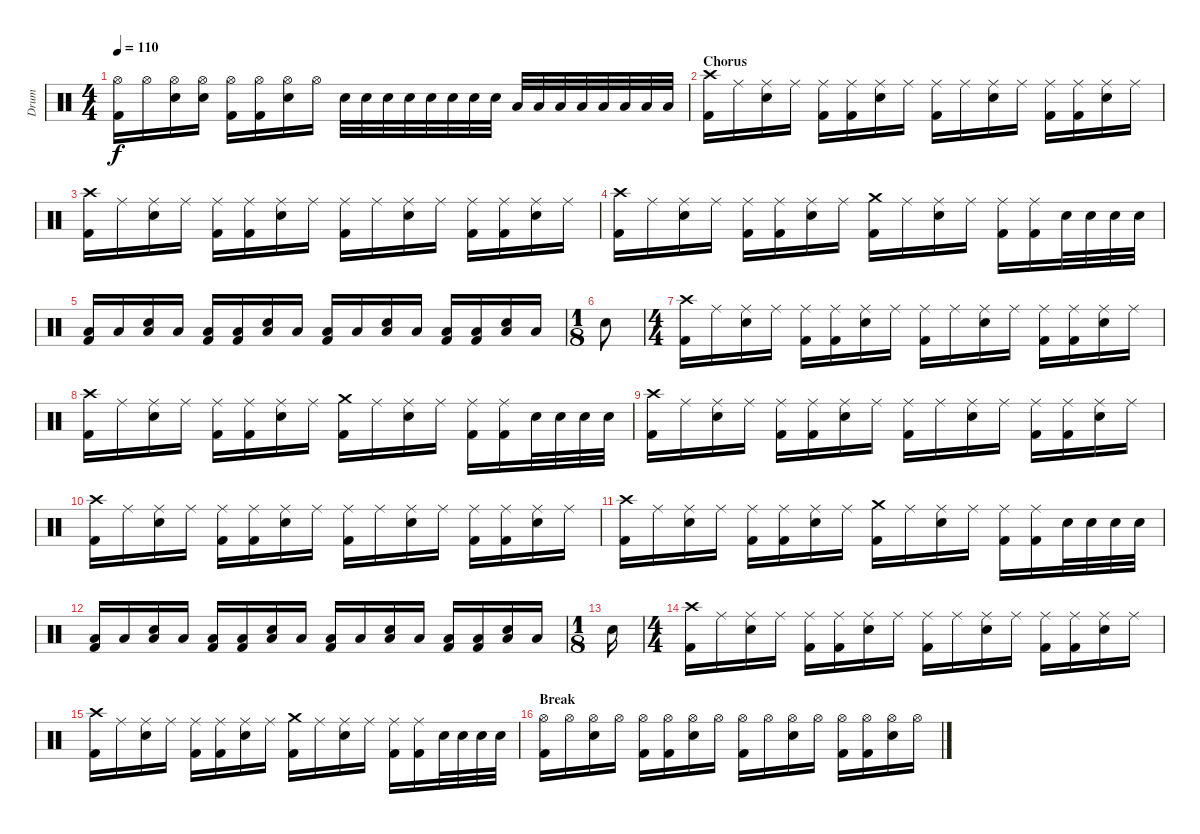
\track ("Drum" "Drum") {instrument percussion}
\staff {score}
\articulation defaults
\ts (4 4)
\tempo 110
\clef neutral
\ks c
("Hi-Hat (open)" "Kick (hit) 2").16{dy f} "Hi-Hat (open)".16 ("Hi-Hat (open)" "Electric Snare (hit)").16 ("Hi-Hat (open)" "Electric Snare (hit)").16 ("Hi-Hat (open)" "Kick (hit) 2").16 ("Hi-Hat (open)" "Kick (hit) 2").16 ("Hi-Hat (open)" "Electric Snare (hit)").16 "Hi-Hat (open)".16 "Electric Snare (hit)".32 "Electric Snare (hit)".32 "Electric Snare (hit)".32 "Electric Snare (hit)".32 "Electric Snare (hit)".32 "Electric Snare (hit)".32 "Electric Snare (hit)".32 "Electric Snare (hit)".32 "Low Tom (hit)".32 "Low Tom (hit)".32 "Low Tom (hit)".32 "Low Tom (hit)".32 "Low Floor Tom (hit)".32 "Low Floor Tom (hit)".32 "Low Floor Tom (hit)".32 "Low Floor Tom (hit)".32 |
\section ("" "Chorus")
("Crash high (hit)" "Kick (hit) 2").16 "Ride (middle)".16 ("Ride (middle)" "Electric Snare (hit)").16 "Ride (middle)".16 ("Ride (middle)" "Kick (hit) 2").16 ("Ride (middle)" "Kick (hit) 2").16 ("Ride (middle)" "Electric Snare (hit)").16 "Ride (middle)".16 ("Ride (middle)" "Kick (hit) 2").16 "Ride (middle)".16 ("Ride (middle)" "Electric Snare (hit)").16 "Ride (middle)".16 ("Ride (middle)" "Kick (hit) 2").16 ("Ride (middle)" "Kick (hit) 2").16 ("Ride (middle)" "Electric Snare (hit)").16 "Ride (middle)".16 |
("Crash high (hit)" "Kick (hit) 2").16 "Ride (middle)".16 ("Ride (middle)" "Electric Snare (hit)").16 "Ride (middle)".16 ("Ride (middle)" "Kick (hit) 2").16 ("Ride (middle)" "Kick (hit) 2").16 ("Ride (middle)" "Electric Snare (hit)").16 "Ride (middle)".16 ("Ride (middle)" "Kick (hit) 2").16 "Ride (middle)".16 ("Ride (middle)" "Electric Snare (hit)").16 "Ride (middle)".16 ("Ride (middle)" "Kick (hit) 2").16 ("Ride (middle)" "Kick (hit) 2").16 ("Ride (middle)" "Electric Snare (hit)").16 "Ride (middle)".16 |
("Crash high (hit)" "Kick (hit) 2").16 "Ride (middle)".16 ("Ride (middle)" "Electric Snare (hit)").16 "Ride (middle)".16 ("Ride (middle)" "Kick (hit) 2").16 ("Ride (middle)" "Kick (hit) 2").16 ("Ride (middle)" "Electric Snare (hit)").16 "Ride (middle)".16 ("Crash medium (hit)" "Kick (hit) 2").16 "Ride (middle)".16 ("Ride (middle)" "Electric Snare (hit)").16 "Ride (middle)".16 ("Ride (middle)" "Kick (hit) 2").16 ("Ride (middle)" "Kick (hit) 2").16 "Electric Snare (hit)".32 "Electric Snare (hit)".32 "Electric Snare (hit)".32 "Electric Snare (hit)".32 |
("Low Floor Tom (hit)" "Kick (hit) 2").16 "Low Floor Tom (hit)".16 ("Low Floor Tom (hit)" "Electric Snare (hit)").16 "Low Floor Tom (hit)".16 ("Low Floor Tom (hit)" "Kick (hit) 2").16 ("Low Floor Tom (hit)" "Kick (hit) 2").16 ("Low Floor Tom (hit)" "Electric Snare (hit)").16 "Low Floor Tom (hit)".16 ("Low Floor Tom (hit)" "Kick (hit) 2").16 "Low Floor Tom (hit)".16 ("Low Floor Tom (hit)" "Electric Snare (hit)").16 "Low Floor Tom (hit)".16 ("Low Floor Tom (hit)" "Kick (hit) 2").16 ("Low Floor Tom (hit)" "Kick (hit) 2").16 ("Low Floor Tom (hit)" "Electric Snare (hit)").16 "Low Floor Tom (hit)".16 |
\ts (1 8)
"Electric Snare (hit)".8 |
\ts (4 4)
("Crash high (hit)" "Kick (hit) 2").16 "Ride (middle)".16 ("Ride (middle)" "Electric Snare (hit)").16 "Ride (middle)".16 ("Ride (middle)" "Kick (hit) 2").16 ("Ride (middle)" "Kick (hit) 2").16 ("Ride (middle)" "Electric Snare (hit)").16 "Ride (middle)".16 ("Ride (middle)" "Kick (hit) 2").16 "Ride (middle)".16 ("Ride (middle)" "Electric Snare (hit)").16 "Ride (middle)".16 ("Ride (middle)" "Kick (hit) 2").16 ("Ride (middle)" "Kick (hit) 2").16 ("Ride (middle)" "Electric Snare (hit)").16 "Ride (middle)".16 |
("Crash high (hit)" "Kick (hit) 2").16 "Ride (middle)".16 ("Ride (middle)" "Electric Snare (hit)").16 "Ride (middle)".16 ("Ride (middle)" "Kick (hit) 2").16 ("Ride (middle)" "Kick (hit) 2").16 ("Ride (middle)" "Electric Snare (hit)").16 "Ride (middle)".16 ("Crash medium (hit)" "Kick (hit) 2").16 "Ride (middle)".16 ("Ride (middle)" "Electric Snare (hit)").16 "Ride (middle)".16 ("Ride (middle)" "Kick (hit) 2").16 ("Ride (middle)" "Kick (hit) 2").16 "Electric Snare (hit)".32 "Electric Snare (hit)".32 "Electric Snare (hit)".32 "Electric Snare (hit)".32 |
("Crash high (hit)" "Kick (hit) 2").16 "Ride (middle)".16 ("Ride (middle)" "Electric Snare (hit)").16 "Ride (middle)".16 ("Ride (middle)" "Kick (hit) 2").16 ("Ride (middle)" "Kick (hit) 2").16 ("Ride (middle)" "Electric Snare (hit)").16 "Ride (middle)".16 ("Ride (middle)" "Kick (hit) 2").16 "Ride (middle)".16 ("Ride (middle)" "Electric Snare (hit)").16 "Ride (middle)".16 ("Ride (middle)" "Kick (hit) 2").16 ("Ride (middle)" "Kick (hit) 2").16 ("Ride (middle)" "Electric Snare (hit)").16 "Ride (middle)".16 |
("Crash high (hit)" "Kick (hit) 2").16 "Ride (middle)".16 ("Ride (middle)" "Electric Snare (hit)").16 "Ride (middle)".16 ("Ride (middle)" "Kick (hit) 2").16 ("Ride (middle)" "Kick (hit) 2").16 ("Ride (middle)" "Electric Snare (hit)").16 "Ride (middle)".16 ("Ride (middle)" "Kick (hit) 2").16 "Ride (middle)".16 ("Ride (middle)" "Electric Snare (hit)").16 "Ride (middle)".16 ("Ride (middle)" "Kick (hit) 2").16 ("Ride (middle)" "Kick (hit) 2").16 ("Ride (middle)" "Electric Snare (hit)").16 "Ride (middle)".16 |
("Crash high (hit)" "Kick (hit) 2").16 "Ride (middle)".16 ("Ride (middle)" "Electric Snare (hit)").16 "Ride (middle)".16 ("Ride (middle)" "Kick (hit) 2").16 ("Ride (middle)" "Kick (hit) 2").16 ("Ride (middle)" "Electric Snare (hit)").16 "Ride (middle)".16 ("Crash medium (hit)" "Kick (hit) 2").16 "Ride (middle)".16 ("Ride (middle)" "Electric Snare (hit)").16 "Ride (middle)".16 ("Ride (middle)" "Kick (hit) 2").16 ("Ride (middle)" "Kick (hit) 2").16 "Electric Snare (hit)".32 "Electric Snare (hit)".32 "Electric Snare (hit)".32 "Electric Snare (hit)".32 |
("Low Floor Tom (hit)" "Kick (hit) 2").16 "Low Floor Tom (hit)".16 ("Low Floor Tom (hit)" "Electric Snare (hit)").16 "Low Floor Tom (hit)".16 ("Low Floor Tom (hit)" "Kick (hit) 2").16 ("Low Floor Tom (hit)" "Kick (hit) 2").16 ("Low Floor Tom (hit)" "Electric Snare (hit)").16 "Low Floor Tom (hit)".16 ("Low Floor Tom (hit)" "Kick (hit) 2").16 "Low Floor Tom (hit)".16 ("Low Floor Tom (hit)" "Electric Snare (hit)").16 "Low Floor Tom (hit)".16 ("Low Floor Tom (hit)" "Kick (hit) 2").16 ("Low Floor Tom (hit)" "Kick (hit) 2").16 ("Low Floor Tom (hit)" "Electric Snare (hit)").16 "Low Floor Tom (hit)".16 |
\ts (1 8)
"Electric Snare (hit)".16 |
\ts (4 4)
("Crash high (hit)" "Kick (hit) 2").16 "Ride (middle)".16 ("Ride (middle)" "Electric Snare (hit)").16 "Ride (middle)".16 ("Ride (middle)" "Kick (hit) 2").16 ("Ride (middle)" "Kick (hit) 2").16 ("Ride (middle)" "Electric Snare (hit)").16 "Ride (middle)".16 ("Ride (middle)" "Kick (hit) 2").16 "Ride (middle)".16 ("Ride (middle)" "Electric Snare (hit)").16 "Ride (middle)".16 ("Ride (middle)" "Kick (hit) 2").16 ("Ride (middle)" "Kick (hit) 2").16 ("Ride (middle)" "Electric Snare (hit)").16 "Ride (middle)".16 |
("Crash high (hit)" "Kick (hit) 2").16 "Ride (middle)".16 ("Ride (middle)" "Electric Snare (hit)").16 "Ride (middle)".16 ("Ride (middle)" "Kick (hit) 2").16 ("Ride (middle)" "Kick (hit) 2").16 ("Ride (middle)" "Electric Snare (hit)").16 "Ride (middle)".16 ("Crash medium (hit)" "Kick (hit) 2").16 "Ride (middle)".16 ("Ride (middle)" "Electric Snare (hit)").16 "Ride (middle)".16 ("Ride (middle)" "Kick (hit) 2").16 ("Ride (middle)" "Kick (hit) 2").16 "Electric Snare (hit)".32 "Electric Snare (hit)".32 "Electric Snare (hit)".32 "Electric Snare (hit)".32 |
\section ("" "Break")
("Hi-Hat (open)" "Kick (hit) 2").16 "Hi-Hat (open)".16 ("Hi-Hat (open)" "Electric Snare (hit)").16 "Hi-Hat (open)".16 ("Hi-Hat (open)" "Kick (hit) 2").16 ("Hi-Hat (open)" "Kick (hit) 2").16 ("Hi-Hat (open)" "Electric Snare (hit)").16 "Hi-Hat (open)".16 ("Hi-Hat (open)" "Kick (hit) 2").16 "Hi-Hat (open)".16 ("Hi-Hat (open)" "Electric Snare (hit)").16 "Hi-Hat (open)".16 ("Hi-Hat (open)" "Kick (hit) 2").16 ("Hi-Hat (open)" "Kick (hit) 2").16 ("Hi-Hat (open)" "Electric Snare (hit)").16 "Hi-Hat (open)".16
